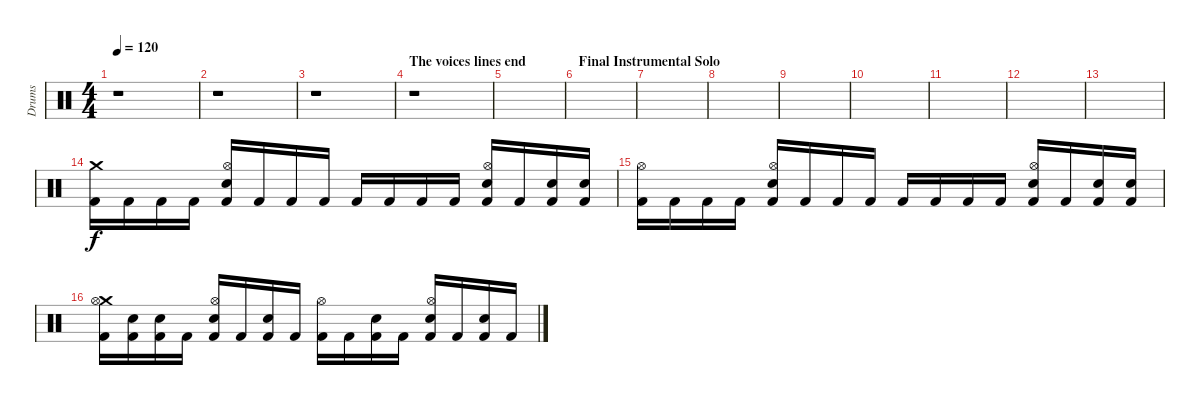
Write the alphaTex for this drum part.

\track ("Drums" "Drums") {instrument percussion}
\staff {score}
\articulation defaults
\ts (4 4)
\tempo 120
\clef neutral
\ks c
r.1{dy f} |
r.1 |
r.1 |
\section ("" "The voices lines end")
r.1 |
|
\section ("" "Final Instrumental Solo")
|
|
|
|
|
|
|
|
("Crash medium (hit)" "Kick (hit) 2").16 "Kick (hit) 2".16 "Kick (hit) 2".16 "Kick (hit) 2".16 ("Hi-Hat (open)" "Snare (hit) 2" "Kick (hit) 2").16 "Kick (hit) 2".16 "Kick (hit) 2".16 "Kick (hit) 2".16 "Kick (hit) 2".16 "Kick (hit) 2".16 "Kick (hit) 2".16 "Kick (hit) 2".16 ("Hi-Hat (open)" "Snare (hit) 2" "Kick (hit) 2").16 "Kick (hit) 2".16 ("Snare (hit) 2" "Kick (hit) 2").16 ("Snare (hit) 2" "Kick (hit) 2").16 |
("Hi-Hat (open)" "Kick (hit) 2").16 "Kick (hit) 2".16 "Kick (hit) 2".16 "Kick (hit) 2".16 ("Hi-Hat (open)" "Snare (hit) 2" "Kick (hit) 2").16 "Kick (hit) 2".16 "Kick (hit) 2".16 "Kick (hit) 2".16 "Kick (hit) 2".16 "Kick (hit) 2".16 "Kick (hit) 2".16 "Kick (hit) 2".16 ("Hi-Hat (open)" "Snare (hit) 2" "Kick (hit) 2").16 "Kick (hit) 2".16 ("Snare (hit) 2" "Kick (hit) 2").16 ("Snare (hit) 2" "Kick (hit) 2").16 |
("Crash medium (hit)" "Hi-Hat (open)" "Kick (hit) 2").16 ("Snare (hit) 2" "Kick (hit) 2").16 ("Snare (hit) 2" "Kick (hit) 2").16 "Kick (hit) 2".16 ("Hi-Hat (open)" "Snare (hit) 2" "Kick (hit) 2").16 "Kick (hit) 2".16 ("Snare (hit) 2" "Kick (hit) 2").16 "Kick (hit) 2".16 ("Hi-Hat (open)" "Kick (hit) 2").16 "Kick (hit) 2".16 ("Snare (hit) 2" "Kick (hit) 2").16 "Kick (hit) 2".16 ("Hi-Hat (open)" "Snare (hit) 2" "Kick (hit) 2").16 "Kick (hit) 2".16 ("Snare (hit) 2" "Kick (hit) 2").16 "Kick (hit) 2".16
